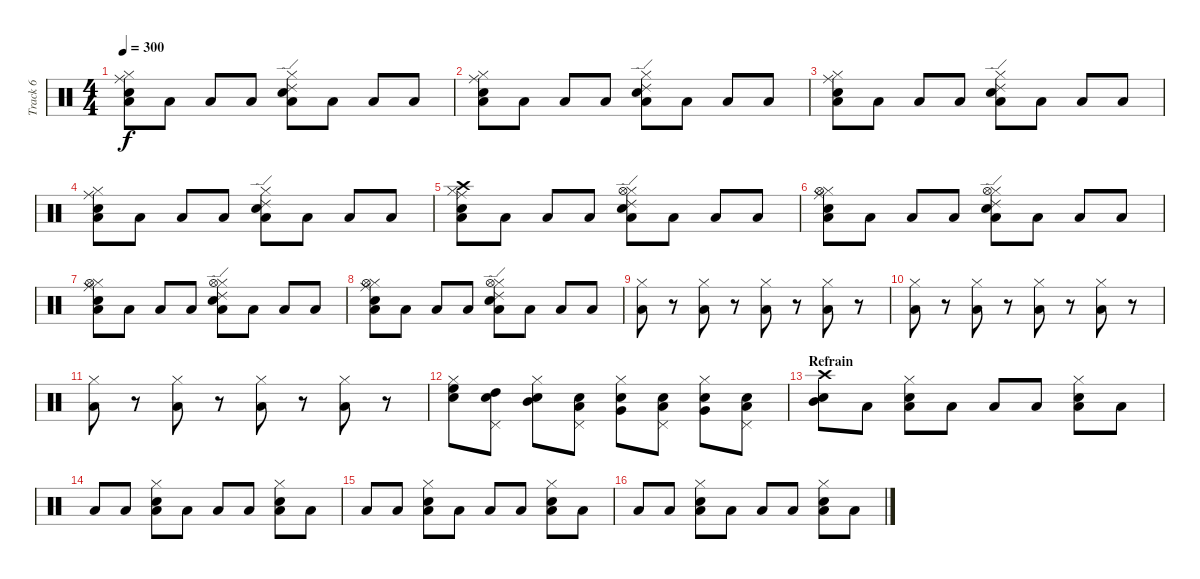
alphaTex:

\track ("Track 6" "Track 6") {instrument percussion}
\staff {score}
\articulation defaults
\ts (4 4)
\tempo 300
\clef neutral
\ks c
("Snare (hit) 2" "Low Tom (hit)" "Hi-Hat (closed)" "Ride (middle)").8{dy f} "Low Floor Tom (hit)".8 "Low Floor Tom (hit)".8 "Low Floor Tom (hit)".8 ("Electric Snare (hit)" "Low Tom (hit)" "Hi-Hat (closed)" "Ride (edge) 2").8 "Low Floor Tom (hit)".8 "Low Floor Tom (hit)".8 "Low Floor Tom (hit)".8 |
("Snare (hit) 2" "Low Tom (hit)" "Hi-Hat (closed)" "Ride (middle)").8 "Low Floor Tom (hit)".8 "Low Floor Tom (hit)".8 "Low Floor Tom (hit)".8 ("Electric Snare (hit)" "Low Tom (hit)" "Hi-Hat (closed)" "Ride (edge) 2").8 "Low Floor Tom (hit)".8 "Low Floor Tom (hit)".8 "Low Floor Tom (hit)".8 |
("Snare (hit) 2" "Low Tom (hit)" "Hi-Hat (closed)" "Ride (middle)").8 "Low Floor Tom (hit)".8 "Low Floor Tom (hit)".8 "Low Floor Tom (hit)".8 ("Electric Snare (hit)" "Low Tom (hit)" "Hi-Hat (closed)" "Ride (edge) 2").8 "Low Floor Tom (hit)".8 "Low Floor Tom (hit)".8 "Low Floor Tom (hit)".8 |
("Snare (hit) 2" "Low Tom (hit)" "Hi-Hat (closed)" "Ride (middle)").8 "Low Floor Tom (hit)".8 "Low Floor Tom (hit)".8 "Low Floor Tom (hit)".8 ("Electric Snare (hit)" "Low Tom (hit)" "Hi-Hat (closed)" "Ride (edge) 2").8 "Low Floor Tom (hit)".8 "Low Floor Tom (hit)".8 "Low Floor Tom (hit)".8 |
("Snare (hit) 2" "Low Tom (hit)" "Hi-Hat (closed)" "Crash high (hit)" "Ride (middle)").8 "Low Floor Tom (hit)".8 "Low Floor Tom (hit)".8 "Low Floor Tom (hit)".8 ("Electric Snare (hit)" "Low Tom (hit)" "Hi-Hat (closed)" "Hi-Hat (open)" "Ride (edge) 2").8 "Low Floor Tom (hit)".8 "Low Floor Tom (hit)".8 "Low Floor Tom (hit)".8 |
("Snare (hit) 2" "Low Tom (hit)" "Hi-Hat (closed)" "Hi-Hat (open)" "Ride (middle)").8 "Low Floor Tom (hit)".8 "Low Floor Tom (hit)".8 "Low Floor Tom (hit)".8 ("Electric Snare (hit)" "Low Tom (hit)" "Hi-Hat (closed)" "Hi-Hat (open)" "Ride (edge) 2").8 "Low Floor Tom (hit)".8 "Low Floor Tom (hit)".8 "Low Floor Tom (hit)".8 |
("Snare (hit) 2" "Low Tom (hit)" "Hi-Hat (closed)" "Hi-Hat (open)" "Ride (middle)").8 "Low Floor Tom (hit)".8 "Low Floor Tom (hit)".8 "Low Floor Tom (hit)".8 ("Electric Snare (hit)" "Low Tom (hit)" "Hi-Hat (closed)" "Hi-Hat (open)" "Ride (edge) 2").8 "Low Floor Tom (hit)".8 "Low Floor Tom (hit)".8 "Low Floor Tom (hit)".8 |
("Snare (hit) 2" "Low Tom (hit)" "Hi-Hat (closed)" "Hi-Hat (open)" "Ride (middle)").8 "Low Floor Tom (hit)".8 "Low Floor Tom (hit)".8 "Low Floor Tom (hit)".8 ("Electric Snare (hit)" "Low Tom (hit)" "Hi-Hat (closed)" "Hi-Hat (open)" "Ride (edge) 2").8 "Low Floor Tom (hit)".8 "Low Floor Tom (hit)".8 "Low Floor Tom (hit)".8 |
("Low Floor Tom (hit)" "Hi-Hat (closed)").8 r.8 ("Low Floor Tom (hit)" "Hi-Hat (closed)").8 r.8 ("Low Floor Tom (hit)" "Hi-Hat (closed)").8 r.8 ("Low Floor Tom (hit)" "Hi-Hat (closed)").8 r.8 |
("Low Floor Tom (hit)" "Hi-Hat (closed)").8 r.8 ("Low Floor Tom (hit)" "Hi-Hat (closed)").8 r.8 ("Low Floor Tom (hit)" "Hi-Hat (closed)").8 r.8 ("Low Floor Tom (hit)" "Hi-Hat (closed)").8 r.8 |
("Low Floor Tom (hit)" "Hi-Hat (closed)").8 r.8 ("Low Floor Tom (hit)" "Hi-Hat (closed)").8 r.8 ("Low Floor Tom (hit)" "Hi-Hat (closed)").8 r.8 ("Low Floor Tom (hit)" "Hi-Hat (closed)").8 r.8 |
("High Floor Tom (hit)" "Electric Snare (hit)" "Hi-Hat (closed)").8 ("High Tom (hit)" "Electric Snare (hit)" "Pedal Hi-Hat (hit)").8 ("Mid Tom (hit)" "Electric Snare (hit)" "Hi-Hat (closed)").8 ("Low Tom (hit)" "Electric Snare (hit)" "Pedal Hi-Hat (hit)").8 ("Very Low Tom (hit)" "Electric Snare (hit)" "Hi-Hat (closed)").8 ("Low Floor Tom (hit)" "Electric Snare (hit)" "Pedal Hi-Hat (hit)").8 ("Very Low Tom (hit)" "Electric Snare (hit)" "Hi-Hat (closed)").8 ("Low Tom (hit)" "Electric Snare (hit)" "Pedal Hi-Hat (hit)").8 |
\section ("" "Refrain")
("Snare (hit) 2" "Mid Tom (hit)" "Crash high (hit)").8 "Low Floor Tom (hit)".8 ("Electric Snare (hit)" "Low Tom (hit)" "Hi-Hat (closed)").8 "Low Floor Tom (hit)".8 "Low Floor Tom (hit)".8 "Low Floor Tom (hit)".8 ("Electric Snare (hit)" "Low Tom (hit)" "Hi-Hat (closed)").8 "Low Floor Tom (hit)".8 |
"Low Floor Tom (hit)".8 "Low Floor Tom (hit)".8 ("Electric Snare (hit)" "Low Tom (hit)" "Hi-Hat (closed)").8 "Low Floor Tom (hit)".8 "Low Floor Tom (hit)".8 "Low Floor Tom (hit)".8 ("Electric Snare (hit)" "Low Tom (hit)" "Hi-Hat (closed)").8 "Low Floor Tom (hit)".8 |
"Low Floor Tom (hit)".8 "Low Floor Tom (hit)".8 ("Electric Snare (hit)" "Low Tom (hit)" "Hi-Hat (closed)").8 "Low Floor Tom (hit)".8 "Low Floor Tom (hit)".8 "Low Floor Tom (hit)".8 ("Electric Snare (hit)" "Low Tom (hit)" "Hi-Hat (closed)").8 "Low Floor Tom (hit)".8 |
"Low Floor Tom (hit)".8 "Low Floor Tom (hit)".8 ("Electric Snare (hit)" "Low Tom (hit)" "Hi-Hat (closed)").8 "Low Floor Tom (hit)".8 "Low Floor Tom (hit)".8 "Low Floor Tom (hit)".8 ("Electric Snare (hit)" "Low Tom (hit)" "Hi-Hat (closed)").8 "Low Floor Tom (hit)".8
